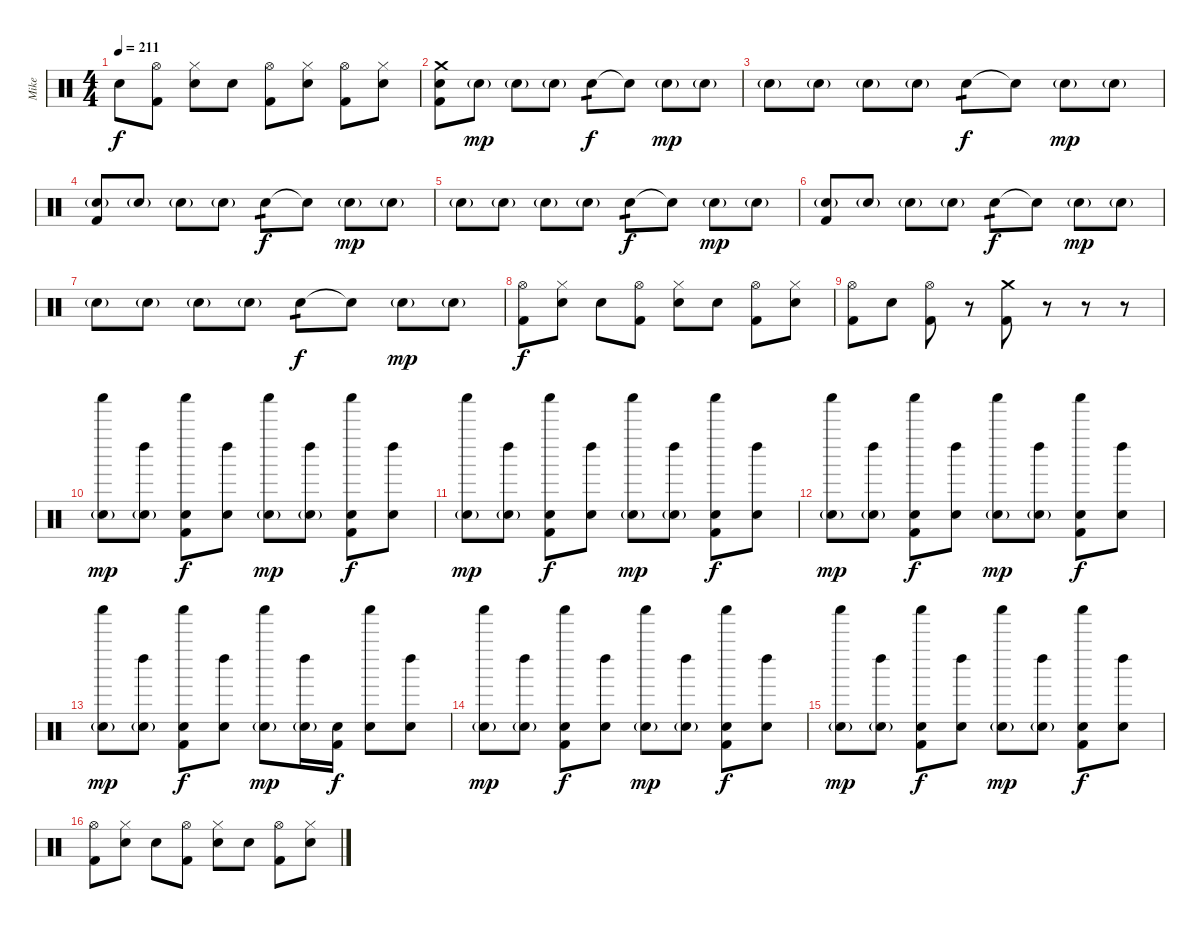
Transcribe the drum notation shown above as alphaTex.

\track ("Mike" "Mike") {instrument percussion}
\staff {score}
\articulation defaults
\ts (4 4)
\tempo 211
\clef neutral
\ks c "Electric Snare (hit)".8{dy f}
("Hi-Hat (open)" "Kick (hit) 2").8 ("Hi-Hat (closed)" "Electric Snare (hit)").8 "Electric Snare (hit)".8 ("Hi-Hat (open)" "Kick (hit) 2").8 ("Hi-Hat (closed)" "Electric Snare (hit)").8 ("Hi-Hat (open)" "Kick (hit) 2").8 ("Hi-Hat (closed)" "Electric Snare (hit)").8 |
("Crash medium (hit)" "Electric Snare (hit)" "Kick (hit) 2").8 "Electric Snare (hit)"{g}.8{dy mp} "Electric Snare (hit)"{g}.8 "Electric Snare (hit)"{g}.8 "Electric Snare (hit)".8{tp 1 dy f} "Electric Snare (hit)"{t}.8 "Electric Snare (hit)"{g}.8{dy mp} "Electric Snare (hit)"{g}.8 |
"Electric Snare (hit)"{g}.8 "Electric Snare (hit)"{g}.8 "Electric Snare (hit)"{g}.8 "Electric Snare (hit)"{g}.8 "Electric Snare (hit)".8{tp 1 dy f} "Electric Snare (hit)"{t}.8 "Electric Snare (hit)"{g}.8{dy mp} "Electric Snare (hit)"{g}.8 |
("Electric Snare (hit)"{g} "Kick (hit) 2").8 "Electric Snare (hit)"{g}.8 "Electric Snare (hit)"{g}.8 "Electric Snare (hit)"{g}.8 "Electric Snare (hit)".8{tp 1 dy f} "Electric Snare (hit)"{t}.8 "Electric Snare (hit)"{g}.8{dy mp} "Electric Snare (hit)"{g}.8 |
"Electric Snare (hit)"{g}.8 "Electric Snare (hit)"{g}.8 "Electric Snare (hit)"{g}.8 "Electric Snare (hit)"{g}.8 "Electric Snare (hit)".8{tp 1 dy f} "Electric Snare (hit)"{t}.8 "Electric Snare (hit)"{g}.8{dy mp} "Electric Snare (hit)"{g}.8 |
("Electric Snare (hit)"{g} "Kick (hit) 2").8 "Electric Snare (hit)"{g}.8 "Electric Snare (hit)"{g}.8 "Electric Snare (hit)"{g}.8 "Electric Snare (hit)".8{tp 1 dy f} "Electric Snare (hit)"{t}.8 "Electric Snare (hit)"{g}.8{dy mp} "Electric Snare (hit)"{g}.8 |
"Electric Snare (hit)"{g}.8 "Electric Snare (hit)"{g}.8 "Electric Snare (hit)"{g}.8 "Electric Snare (hit)"{g}.8 "Electric Snare (hit)".8{tp 1 dy f} "Electric Snare (hit)"{t}.8 "Electric Snare (hit)"{g}.8{dy mp} "Electric Snare (hit)"{g}.8 |
("Hi-Hat (open)" "Kick (hit) 2").8{dy f} ("Hi-Hat (closed)" "Electric Snare (hit)").8 "Electric Snare (hit)".8 ("Hi-Hat (open)" "Kick (hit) 2").8 ("Hi-Hat (closed)" "Electric Snare (hit)").8 "Electric Snare (hit)".8 ("Hi-Hat (open)" "Kick (hit) 2").8 ("Hi-Hat (closed)" "Electric Snare (hit)").8 |
("Hi-Hat (open)" "Kick (hit) 2").8 "Electric Snare (hit)".8 ("Hi-Hat (open)" "Kick (hit) 2").8 r.8 ("Crash medium (hit)" "Kick (hit) 2").8 r.8 r.8 r.8 |
("Shaker (hit)" "Electric Snare (hit)"{g}).8{dy mp} ("Left Maraca (hit)" "Electric Snare (hit)"{g}).8 ("Shaker (hit)" "Electric Snare (hit)" "Kick (hit) 2").8{dy f} ("Left Maraca (hit)" "Electric Snare (hit)").8 ("Shaker (hit)" "Electric Snare (hit)"{g}).8{dy mp} ("Left Maraca (hit)" "Electric Snare (hit)"{g}).8 ("Shaker (hit)" "Electric Snare (hit)" "Kick (hit) 2").8{dy f} ("Left Maraca (hit)" "Electric Snare (hit)").8 |
("Shaker (hit)" "Electric Snare (hit)"{g}).8{dy mp} ("Left Maraca (hit)" "Electric Snare (hit)"{g}).8 ("Shaker (hit)" "Electric Snare (hit)" "Kick (hit) 2").8{dy f} ("Left Maraca (hit)" "Electric Snare (hit)").8 ("Shaker (hit)" "Electric Snare (hit)"{g}).8{dy mp} ("Left Maraca (hit)" "Electric Snare (hit)"{g}).8 ("Shaker (hit)" "Electric Snare (hit)" "Kick (hit) 2").8{dy f} ("Left Maraca (hit)" "Electric Snare (hit)").8 |
("Shaker (hit)" "Electric Snare (hit)"{g}).8{dy mp} ("Left Maraca (hit)" "Electric Snare (hit)"{g}).8 ("Shaker (hit)" "Electric Snare (hit)" "Kick (hit) 2").8{dy f} ("Left Maraca (hit)" "Electric Snare (hit)").8 ("Shaker (hit)" "Electric Snare (hit)"{g}).8{dy mp} ("Left Maraca (hit)" "Electric Snare (hit)"{g}).8 ("Shaker (hit)" "Electric Snare (hit)" "Kick (hit) 2").8{dy f} ("Left Maraca (hit)" "Electric Snare (hit)").8 |
("Shaker (hit)" "Electric Snare (hit)"{g}).8{dy mp} ("Left Maraca (hit)" "Electric Snare (hit)"{g}).8 ("Shaker (hit)" "Electric Snare (hit)" "Kick (hit) 2").8{dy f} ("Left Maraca (hit)" "Electric Snare (hit)").8 ("Shaker (hit)" "Electric Snare (hit)"{g}).8{dy mp} ("Left Maraca (hit)" "Electric Snare (hit)"{g}).16 ("Electric Snare (hit)" "Kick (hit) 2").16{dy f} ("Shaker (hit)" "Electric Snare (hit)").8 ("Left Maraca (hit)" "Electric Snare (hit)").8 |
("Shaker (hit)" "Electric Snare (hit)"{g}).8{dy mp} ("Left Maraca (hit)" "Electric Snare (hit)"{g}).8 ("Shaker (hit)" "Electric Snare (hit)" "Kick (hit) 2").8{dy f} ("Left Maraca (hit)" "Electric Snare (hit)").8 ("Shaker (hit)" "Electric Snare (hit)"{g}).8{dy mp} ("Left Maraca (hit)" "Electric Snare (hit)"{g}).8 ("Shaker (hit)" "Electric Snare (hit)" "Kick (hit) 2").8{dy f} ("Left Maraca (hit)" "Electric Snare (hit)").8 |
("Shaker (hit)" "Electric Snare (hit)"{g}).8{dy mp} ("Left Maraca (hit)" "Electric Snare (hit)"{g}).8 ("Shaker (hit)" "Electric Snare (hit)" "Kick (hit) 2").8{dy f} ("Left Maraca (hit)" "Electric Snare (hit)").8 ("Shaker (hit)" "Electric Snare (hit)"{g}).8{dy mp} ("Left Maraca (hit)" "Electric Snare (hit)"{g}).8 ("Shaker (hit)" "Electric Snare (hit)" "Kick (hit) 2").8{dy f} ("Left Maraca (hit)" "Electric Snare (hit)").8 |
("Hi-Hat (open)" "Kick (hit) 2").8 ("Hi-Hat (closed)" "Electric Snare (hit)").8 "Electric Snare (hit)".8 ("Hi-Hat (open)" "Kick (hit) 2").8 ("Hi-Hat (closed)" "Electric Snare (hit)").8 "Electric Snare (hit)".8 ("Hi-Hat (open)" "Kick (hit) 2").8 ("Hi-Hat (closed)" "Electric Snare (hit)").8
